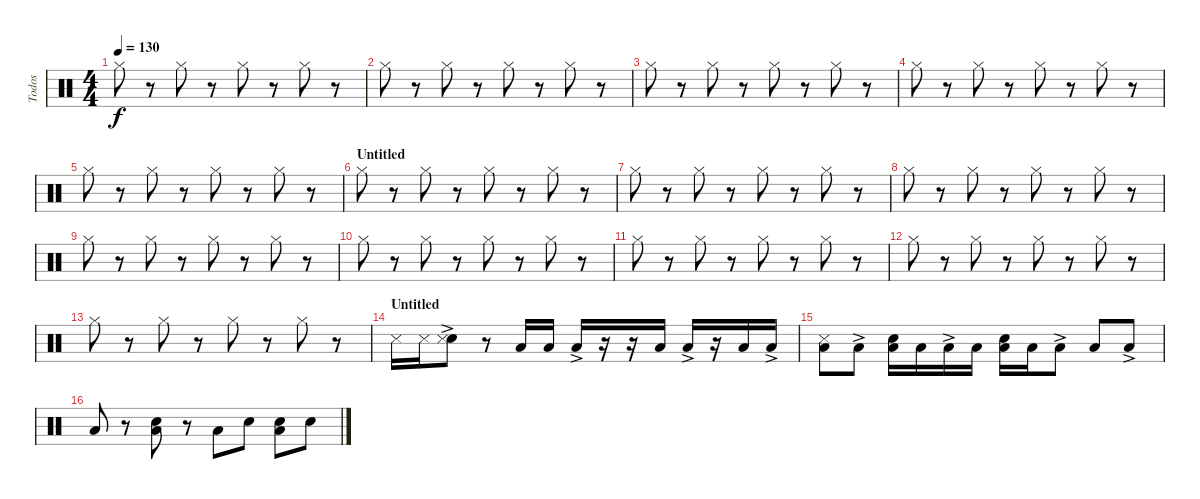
\track ("Todos" "Todos") {instrument percussion}
\staff {score}
\articulation defaults
\ts (4 4)
\tempo 130
\clef neutral
\ks c "Hi-Hat (closed)".8{dy f}
r.8 "Hi-Hat (closed)".8 r.8 "Hi-Hat (closed)".8 r.8 "Hi-Hat (closed)".8 r.8 |
"Hi-Hat (closed)".8 r.8 "Hi-Hat (closed)".8 r.8 "Hi-Hat (closed)".8 r.8 "Hi-Hat (closed)".8 r.8 |
"Hi-Hat (closed)".8 r.8 "Hi-Hat (closed)".8 r.8 "Hi-Hat (closed)".8 r.8 "Hi-Hat (closed)".8 r.8 |
"Hi-Hat (closed)".8 r.8 "Hi-Hat (closed)".8 r.8 "Hi-Hat (closed)".8 r.8 "Hi-Hat (closed)".8 r.8 |
"Hi-Hat (closed)".8 r.8 "Hi-Hat (closed)".8 r.8 "Hi-Hat (closed)".8 r.8 "Hi-Hat (closed)".8 r.8 |
\section ("" "Untitled")
"Hi-Hat (closed)".8 r.8 "Hi-Hat (closed)".8 r.8 "Hi-Hat (closed)".8 r.8 "Hi-Hat (closed)".8 r.8 |
"Hi-Hat (closed)".8 r.8 "Hi-Hat (closed)".8 r.8 "Hi-Hat (closed)".8 r.8 "Hi-Hat (closed)".8 r.8 |
"Hi-Hat (closed)".8 r.8 "Hi-Hat (closed)".8 r.8 "Hi-Hat (closed)".8 r.8 "Hi-Hat (closed)".8 r.8 |
"Hi-Hat (closed)".8 r.8 "Hi-Hat (closed)".8 r.8 "Hi-Hat (closed)".8 r.8 "Hi-Hat (closed)".8 r.8 |
"Hi-Hat (closed)".8 r.8 "Hi-Hat (closed)".8 r.8 "Hi-Hat (closed)".8 r.8 "Hi-Hat (closed)".8 r.8 |
"Hi-Hat (closed)".8 r.8 "Hi-Hat (closed)".8 r.8 "Hi-Hat (closed)".8 r.8 "Hi-Hat (closed)".8 r.8 |
"Hi-Hat (closed)".8 r.8 "Hi-Hat (closed)".8 r.8 "Hi-Hat (closed)".8 r.8 "Hi-Hat (closed)".8 r.8 |
"Hi-Hat (closed)".8 r.8 "Hi-Hat (closed)".8 r.8 "Hi-Hat (closed)".8 r.8 "Hi-Hat (closed)".8 r.8 |
\section ("" "Untitled")
"Snare (side stick) 3".16 "Snare (side stick) 3".16 ("Hand Clap (hit)"{ac} "Snare (side stick) 3").8 r.8 "Low Floor Tom (hit)".16 "Low Floor Tom (hit)".16 "Low Floor Tom (hit)"{ac}.16 r.16 r.16 "Low Floor Tom (hit)".16 "Low Floor Tom (hit)"{ac}.16 r.16 "Low Floor Tom (hit)".16 "Low Floor Tom (hit)"{ac}.16 |
("Low Floor Tom (hit)" "Snare (side stick) 3").8 "Low Floor Tom (hit)"{ac}.8 ("Low Floor Tom (hit)" "Hand Clap (hit)").16 "Low Floor Tom (hit)".16 "Low Floor Tom (hit)"{ac}.16 "Low Floor Tom (hit)".16 ("Low Floor Tom (hit)" "Hand Clap (hit)").16 "Low Floor Tom (hit)".16 "Low Floor Tom (hit)"{ac}.8 "Low Floor Tom (hit)".8 "Low Floor Tom (hit)"{ac}.8 |
"Low Floor Tom (hit)".8 r.8 ("Hand Clap (hit)" "Low Floor Tom (hit)").8 r.8 "Low Floor Tom (hit)".8 "Hand Clap (hit)".8 ("Hand Clap (hit)" "Low Floor Tom (hit)").8 "Hand Clap (hit)".8
